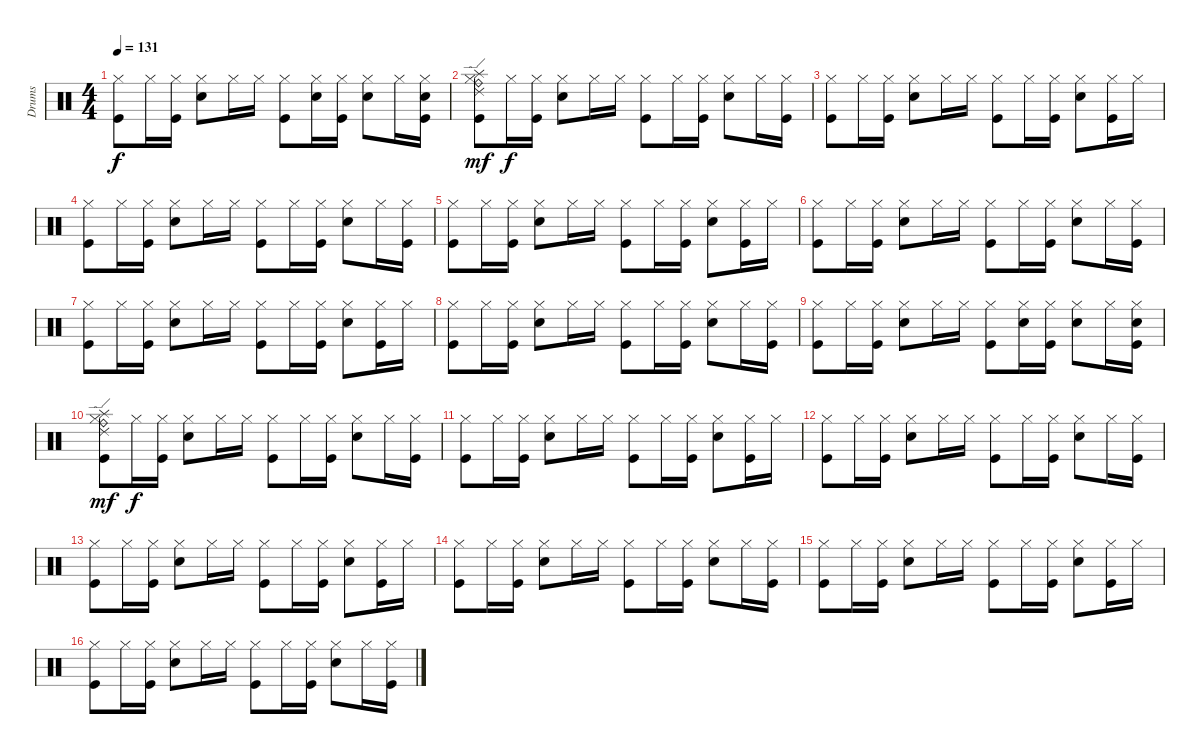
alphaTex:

\track ("Drums" "Drums") {instrument percussion}
\staff {score}
\articulation defaults
\ts (4 4)
\tempo 131
\clef neutral
\ks c
("Hi-Hat (closed)" "Kick (hit)").8{dy f} "Hi-Hat (closed)".16 ("Hi-Hat (closed)" "Kick (hit)").16 ("Hi-Hat (closed)" "Electric Snare (hit)").8 "Hi-Hat (closed)".16 "Hi-Hat (closed)".16 ("Hi-Hat (closed)" "Kick (hit)").8 ("Hi-Hat (closed)" "Electric Snare (hit)").16 ("Hi-Hat (closed)" "Kick (hit)").16 ("Hi-Hat (closed)" "Electric Snare (hit)").8 "Hi-Hat (closed)".16 ("Hi-Hat (closed)" "Electric Snare (hit)" "Kick (hit)").16 |
("Hi-Hat (closed)" "Splash (hit)" "Ride (bell)" "Ride (edge) 2" "Kick (hit)").8{dy mf} "Hi-Hat (closed)".16{dy f} ("Hi-Hat (closed)" "Kick (hit)").16 ("Hi-Hat (closed)" "Electric Snare (hit)").8 "Hi-Hat (closed)".16 "Hi-Hat (closed)".16 ("Hi-Hat (closed)" "Kick (hit)").8 "Hi-Hat (closed)".16 ("Hi-Hat (closed)" "Kick (hit)").16 ("Hi-Hat (closed)" "Electric Snare (hit)").8 "Hi-Hat (closed)".16 ("Hi-Hat (closed)" "Kick (hit)").16 |
("Hi-Hat (closed)" "Kick (hit)").8 "Hi-Hat (closed)".16 ("Hi-Hat (closed)" "Kick (hit)").16 ("Hi-Hat (closed)" "Electric Snare (hit)").8 "Hi-Hat (closed)".16 "Hi-Hat (closed)".16 ("Hi-Hat (closed)" "Kick (hit)").8 "Hi-Hat (closed)".16 ("Hi-Hat (closed)" "Kick (hit)").16 ("Hi-Hat (closed)" "Electric Snare (hit)").8 ("Hi-Hat (closed)" "Kick (hit)").16 "Hi-Hat (closed)".16 |
("Hi-Hat (closed)" "Kick (hit)").8 "Hi-Hat (closed)".16 ("Hi-Hat (closed)" "Kick (hit)").16 ("Hi-Hat (closed)" "Electric Snare (hit)").8 "Hi-Hat (closed)".16 "Hi-Hat (closed)".16 ("Hi-Hat (closed)" "Kick (hit)").8 "Hi-Hat (closed)".16 ("Hi-Hat (closed)" "Kick (hit)").16 ("Hi-Hat (closed)" "Electric Snare (hit)").8 "Hi-Hat (closed)".16 ("Hi-Hat (closed)" "Kick (hit)").16 |
("Hi-Hat (closed)" "Kick (hit)").8 "Hi-Hat (closed)".16 ("Hi-Hat (closed)" "Kick (hit)").16 ("Hi-Hat (closed)" "Electric Snare (hit)").8 "Hi-Hat (closed)".16 "Hi-Hat (closed)".16 ("Hi-Hat (closed)" "Kick (hit)").8 "Hi-Hat (closed)".16 ("Hi-Hat (closed)" "Kick (hit)").16 ("Hi-Hat (closed)" "Electric Snare (hit)").8 ("Hi-Hat (closed)" "Kick (hit)").16 "Hi-Hat (closed)".16 |
("Hi-Hat (closed)" "Kick (hit)").8 "Hi-Hat (closed)".16 ("Hi-Hat (closed)" "Kick (hit)").16 ("Hi-Hat (closed)" "Electric Snare (hit)").8 "Hi-Hat (closed)".16 "Hi-Hat (closed)".16 ("Hi-Hat (closed)" "Kick (hit)").8 "Hi-Hat (closed)".16 ("Hi-Hat (closed)" "Kick (hit)").16 ("Hi-Hat (closed)" "Electric Snare (hit)").8 "Hi-Hat (closed)".16 ("Hi-Hat (closed)" "Kick (hit)").16 |
("Hi-Hat (closed)" "Kick (hit)").8 "Hi-Hat (closed)".16 ("Hi-Hat (closed)" "Kick (hit)").16 ("Hi-Hat (closed)" "Electric Snare (hit)").8 "Hi-Hat (closed)".16 "Hi-Hat (closed)".16 ("Hi-Hat (closed)" "Kick (hit)").8 "Hi-Hat (closed)".16 ("Hi-Hat (closed)" "Kick (hit)").16 ("Hi-Hat (closed)" "Electric Snare (hit)").8 ("Hi-Hat (closed)" "Kick (hit)").16 "Hi-Hat (closed)".16 |
("Hi-Hat (closed)" "Kick (hit)").8 "Hi-Hat (closed)".16 ("Hi-Hat (closed)" "Kick (hit)").16 ("Hi-Hat (closed)" "Electric Snare (hit)").8 "Hi-Hat (closed)".16 "Hi-Hat (closed)".16 ("Hi-Hat (closed)" "Kick (hit)").8 "Hi-Hat (closed)".16 ("Hi-Hat (closed)" "Kick (hit)").16 ("Hi-Hat (closed)" "Electric Snare (hit)").8 "Hi-Hat (closed)".16 ("Hi-Hat (closed)" "Kick (hit)").16 |
("Hi-Hat (closed)" "Kick (hit)").8 "Hi-Hat (closed)".16 ("Hi-Hat (closed)" "Kick (hit)").16 ("Hi-Hat (closed)" "Electric Snare (hit)").8 "Hi-Hat (closed)".16 "Hi-Hat (closed)".16 ("Hi-Hat (closed)" "Kick (hit)").8 ("Hi-Hat (closed)" "Electric Snare (hit)").16 ("Hi-Hat (closed)" "Kick (hit)").16 ("Hi-Hat (closed)" "Electric Snare (hit)").8 "Hi-Hat (closed)".16 ("Hi-Hat (closed)" "Electric Snare (hit)" "Kick (hit)").16 |
("Hi-Hat (closed)" "Splash (hit)" "Ride (bell)" "Ride (edge) 2" "Kick (hit)").8{dy mf} "Hi-Hat (closed)".16{dy f} ("Hi-Hat (closed)" "Kick (hit)").16 ("Hi-Hat (closed)" "Electric Snare (hit)").8 "Hi-Hat (closed)".16 "Hi-Hat (closed)".16 ("Hi-Hat (closed)" "Kick (hit)").8 "Hi-Hat (closed)".16 ("Hi-Hat (closed)" "Kick (hit)").16 ("Hi-Hat (closed)" "Electric Snare (hit)").8 "Hi-Hat (closed)".16 ("Hi-Hat (closed)" "Kick (hit)").16 |
("Hi-Hat (closed)" "Kick (hit)").8 "Hi-Hat (closed)".16 ("Hi-Hat (closed)" "Kick (hit)").16 ("Hi-Hat (closed)" "Electric Snare (hit)").8 "Hi-Hat (closed)".16 "Hi-Hat (closed)".16 ("Hi-Hat (closed)" "Kick (hit)").8 "Hi-Hat (closed)".16 ("Hi-Hat (closed)" "Kick (hit)").16 ("Hi-Hat (closed)" "Electric Snare (hit)").8 ("Hi-Hat (closed)" "Kick (hit)").16 "Hi-Hat (closed)".16 |
("Hi-Hat (closed)" "Kick (hit)").8 "Hi-Hat (closed)".16 ("Hi-Hat (closed)" "Kick (hit)").16 ("Hi-Hat (closed)" "Electric Snare (hit)").8 "Hi-Hat (closed)".16 "Hi-Hat (closed)".16 ("Hi-Hat (closed)" "Kick (hit)").8 "Hi-Hat (closed)".16 ("Hi-Hat (closed)" "Kick (hit)").16 ("Hi-Hat (closed)" "Electric Snare (hit)").8 "Hi-Hat (closed)".16 ("Hi-Hat (closed)" "Kick (hit)").16 |
("Hi-Hat (closed)" "Kick (hit)").8 "Hi-Hat (closed)".16 ("Hi-Hat (closed)" "Kick (hit)").16 ("Hi-Hat (closed)" "Electric Snare (hit)").8 "Hi-Hat (closed)".16 "Hi-Hat (closed)".16 ("Hi-Hat (closed)" "Kick (hit)").8 "Hi-Hat (closed)".16 ("Hi-Hat (closed)" "Kick (hit)").16 ("Hi-Hat (closed)" "Electric Snare (hit)").8 ("Hi-Hat (closed)" "Kick (hit)").16 "Hi-Hat (closed)".16 |
("Hi-Hat (closed)" "Kick (hit)").8 "Hi-Hat (closed)".16 ("Hi-Hat (closed)" "Kick (hit)").16 ("Hi-Hat (closed)" "Electric Snare (hit)").8 "Hi-Hat (closed)".16 "Hi-Hat (closed)".16 ("Hi-Hat (closed)" "Kick (hit)").8 "Hi-Hat (closed)".16 ("Hi-Hat (closed)" "Kick (hit)").16 ("Hi-Hat (closed)" "Electric Snare (hit)").8 "Hi-Hat (closed)".16 ("Hi-Hat (closed)" "Kick (hit)").16 |
("Hi-Hat (closed)" "Kick (hit)").8 "Hi-Hat (closed)".16 ("Hi-Hat (closed)" "Kick (hit)").16 ("Hi-Hat (closed)" "Electric Snare (hit)").8 "Hi-Hat (closed)".16 "Hi-Hat (closed)".16 ("Hi-Hat (closed)" "Kick (hit)").8 "Hi-Hat (closed)".16 ("Hi-Hat (closed)" "Kick (hit)").16 ("Hi-Hat (closed)" "Electric Snare (hit)").8 ("Hi-Hat (closed)" "Kick (hit)").16 "Hi-Hat (closed)".16 |
("Hi-Hat (closed)" "Kick (hit)").8 "Hi-Hat (closed)".16 ("Hi-Hat (closed)" "Kick (hit)").16 ("Hi-Hat (closed)" "Electric Snare (hit)").8 "Hi-Hat (closed)".16 "Hi-Hat (closed)".16 ("Hi-Hat (closed)" "Kick (hit)").8 "Hi-Hat (closed)".16 ("Hi-Hat (closed)" "Kick (hit)").16 ("Hi-Hat (closed)" "Electric Snare (hit)").8 "Hi-Hat (closed)".16 ("Hi-Hat (closed)" "Kick (hit)").16
